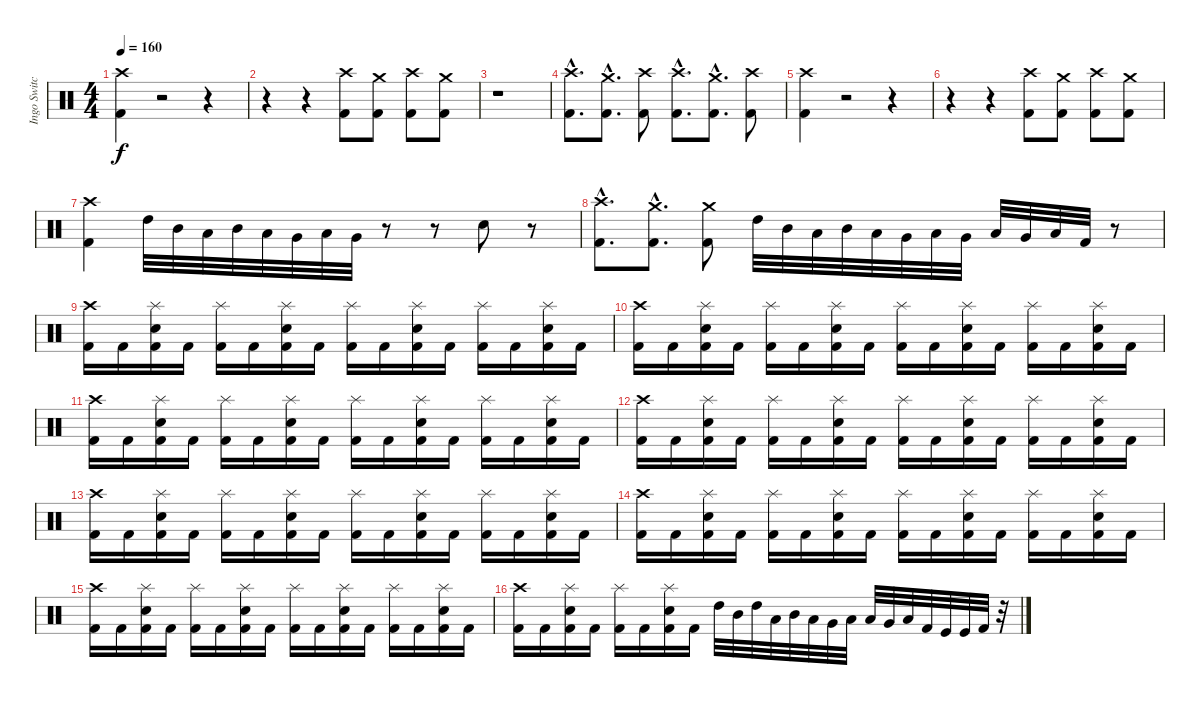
\track ("Ingo Switchenberg" "Ingo Switc") {instrument percussion}
\staff {score}
\articulation defaults
\ts (4 4)
\tempo 160
\clef neutral
\ks c
("Kick (hit) 2" "Crash high (hit)").4{dy f} r.2 r.4 |
r.4 r.4 ("Kick (hit) 2" "Crash high (hit)").8 ("Kick (hit) 2" "Crash medium (hit)").8 ("Kick (hit) 2" "Crash high (hit)").8 ("Kick (hit) 2" "Crash medium (hit)").8 |
r.1 |
("Kick (hit) 2"{hac} "Crash high (hit)"{hac}).8{d} ("Kick (hit) 2"{hac} "Crash medium (hit)"{hac}).8{d} ("Kick (hit) 2" "Crash high (hit)").8 ("Kick (hit) 2"{hac} "Crash high (hit)"{hac}).8{d} ("Kick (hit) 2"{hac} "Crash medium (hit)"{hac}).8{d} ("Kick (hit) 2" "Crash high (hit)").8 |
("Kick (hit) 2" "Crash high (hit)").4 r.2 r.4 |
r.4 r.4 ("Crash high (hit)" "Kick (hit) 2").8 ("Crash medium (hit)" "Kick (hit) 2").8 ("Crash high (hit)" "Kick (hit) 2").8 ("Crash medium (hit)" "Kick (hit) 2").8 |
("Crash high (hit)" "Kick (hit) 2").4 "High Tom (hit)".32 "Mid Tom (hit)".32 "Low Tom (hit)".32 "Mid Tom (hit)".32 "Low Tom (hit)".32 "Very Low Tom (hit)".32 "Low Tom (hit)".32 "Very Low Tom (hit)".32 r.8 r.8 "Snare (hit) 2".8 r.8 |
("Kick (hit) 2"{hac} "Crash high (hit)"{hac}).8{d} ("Kick (hit) 2"{hac} "Crash medium (hit)"{hac}).8{d} ("Kick (hit) 2" "Crash medium (hit)").8 "High Tom (hit)".32 "Mid Tom (hit)".32 "Low Tom (hit)".32 "Mid Tom (hit)".32 "Low Tom (hit)".32 "Very Low Tom (hit)".32 "Low Tom (hit)".32 "Very Low Tom (hit)".32 "Low Floor Tom (hit)".32 "Very Low Tom (hit)".32 "Low Floor Tom (hit)".32 "Kick (hit) 2".32 r.8 |
("Crash high (hit)" "Kick (hit) 2").16 "Kick (hit) 2".16 ("Snare (hit) 2" "Kick (hit) 2" "Splash (hit)").16 "Kick (hit) 2".16 ("Kick (hit) 2" "Splash (hit)").16 "Kick (hit) 2".16 ("Snare (hit) 2" "Kick (hit) 2" "Splash (hit)").16 "Kick (hit) 2".16 ("Kick (hit) 2" "Splash (hit)").16 "Kick (hit) 2".16 ("Snare (hit) 2" "Kick (hit) 2" "Splash (hit)").16 "Kick (hit) 2".16 ("Kick (hit) 2" "Splash (hit)").16 "Kick (hit) 2".16 ("Snare (hit) 2" "Kick (hit) 2" "Splash (hit)").16 "Kick (hit) 2".16 |
("Crash high (hit)" "Kick (hit) 2").16 "Kick (hit) 2".16 ("Snare (hit) 2" "Kick (hit) 2" "Splash (hit)").16 "Kick (hit) 2".16 ("Kick (hit) 2" "Splash (hit)").16 "Kick (hit) 2".16 ("Snare (hit) 2" "Kick (hit) 2" "Splash (hit)").16 "Kick (hit) 2".16 ("Kick (hit) 2" "Splash (hit)").16 "Kick (hit) 2".16 ("Snare (hit) 2" "Kick (hit) 2" "Splash (hit)").16 "Kick (hit) 2".16 ("Kick (hit) 2" "Splash (hit)").16 "Kick (hit) 2".16 ("Snare (hit) 2" "Kick (hit) 2" "Splash (hit)").16 "Kick (hit) 2".16 |
("Crash high (hit)" "Kick (hit) 2").16 "Kick (hit) 2".16 ("Snare (hit) 2" "Kick (hit) 2" "Splash (hit)").16 "Kick (hit) 2".16 ("Kick (hit) 2" "Splash (hit)").16 "Kick (hit) 2".16 ("Snare (hit) 2" "Kick (hit) 2" "Splash (hit)").16 "Kick (hit) 2".16 ("Kick (hit) 2" "Splash (hit)").16 "Kick (hit) 2".16 ("Snare (hit) 2" "Kick (hit) 2" "Splash (hit)").16 "Kick (hit) 2".16 ("Kick (hit) 2" "Splash (hit)").16 "Kick (hit) 2".16 ("Snare (hit) 2" "Kick (hit) 2" "Splash (hit)").16 "Kick (hit) 2".16 |
("Crash high (hit)" "Kick (hit) 2").16 "Kick (hit) 2".16 ("Snare (hit) 2" "Kick (hit) 2" "Splash (hit)").16 "Kick (hit) 2".16 ("Kick (hit) 2" "Splash (hit)").16 "Kick (hit) 2".16 ("Snare (hit) 2" "Kick (hit) 2" "Splash (hit)").16 "Kick (hit) 2".16 ("Kick (hit) 2" "Splash (hit)").16 "Kick (hit) 2".16 ("Snare (hit) 2" "Kick (hit) 2" "Splash (hit)").16 "Kick (hit) 2".16 ("Kick (hit) 2" "Splash (hit)").16 "Kick (hit) 2".16 ("Snare (hit) 2" "Kick (hit) 2" "Splash (hit)").16 "Kick (hit) 2".16 |
("Crash high (hit)" "Kick (hit) 2").16 "Kick (hit) 2".16 ("Snare (hit) 2" "Kick (hit) 2" "Splash (hit)").16 "Kick (hit) 2".16 ("Kick (hit) 2" "Splash (hit)").16 "Kick (hit) 2".16 ("Snare (hit) 2" "Kick (hit) 2" "Splash (hit)").16 "Kick (hit) 2".16 ("Kick (hit) 2" "Splash (hit)").16 "Kick (hit) 2".16 ("Snare (hit) 2" "Kick (hit) 2" "Splash (hit)").16 "Kick (hit) 2".16 ("Kick (hit) 2" "Splash (hit)").16 "Kick (hit) 2".16 ("Snare (hit) 2" "Kick (hit) 2" "Splash (hit)").16 "Kick (hit) 2".16 |
("Crash high (hit)" "Kick (hit) 2").16 "Kick (hit) 2".16 ("Snare (hit) 2" "Kick (hit) 2" "Splash (hit)").16 "Kick (hit) 2".16 ("Kick (hit) 2" "Splash (hit)").16 "Kick (hit) 2".16 ("Snare (hit) 2" "Kick (hit) 2" "Splash (hit)").16 "Kick (hit) 2".16 ("Kick (hit) 2" "Splash (hit)").16 "Kick (hit) 2".16 ("Snare (hit) 2" "Kick (hit) 2" "Splash (hit)").16 "Kick (hit) 2".16 ("Kick (hit) 2" "Splash (hit)").16 "Kick (hit) 2".16 ("Snare (hit) 2" "Kick (hit) 2" "Splash (hit)").16 "Kick (hit) 2".16 |
("Crash high (hit)" "Kick (hit) 2").16 "Kick (hit) 2".16 ("Snare (hit) 2" "Kick (hit) 2" "Splash (hit)").16 "Kick (hit) 2".16 ("Kick (hit) 2" "Splash (hit)").16 "Kick (hit) 2".16 ("Snare (hit) 2" "Kick (hit) 2" "Splash (hit)").16 "Kick (hit) 2".16 ("Kick (hit) 2" "Splash (hit)").16 "Kick (hit) 2".16 ("Snare (hit) 2" "Kick (hit) 2" "Splash (hit)").16 "Kick (hit) 2".16 ("Kick (hit) 2" "Splash (hit)").16 "Kick (hit) 2".16 ("Snare (hit) 2" "Kick (hit) 2" "Splash (hit)").16 "Kick (hit) 2".16 |
("Kick (hit) 2" "Crash high (hit)").16 "Kick (hit) 2".16 ("Kick (hit) 2" "Snare (hit) 2" "Splash (hit)").16 "Kick (hit) 2".16 ("Kick (hit) 2" "Splash (hit)").16 "Kick (hit) 2".16 ("Kick (hit) 2" "Snare (hit) 2" "Splash (hit)").16 "Kick (hit) 2".16 "High Tom (hit)".32 "Mid Tom (hit)".32 "High Tom (hit)".32 "Low Tom (hit)".32 "Mid Tom (hit)".32 "Low Tom (hit)".32 "Very Low Tom (hit)".32 "Low Tom (hit)".32 "Low Floor Tom (hit)".32 "Very Low Tom (hit)".32 "Low Tom (hit)".32 "Kick (hit) 2".32 "Kick (hit)".32 "Kick (hit)".32 "Kick (hit) 2".32 r.32
